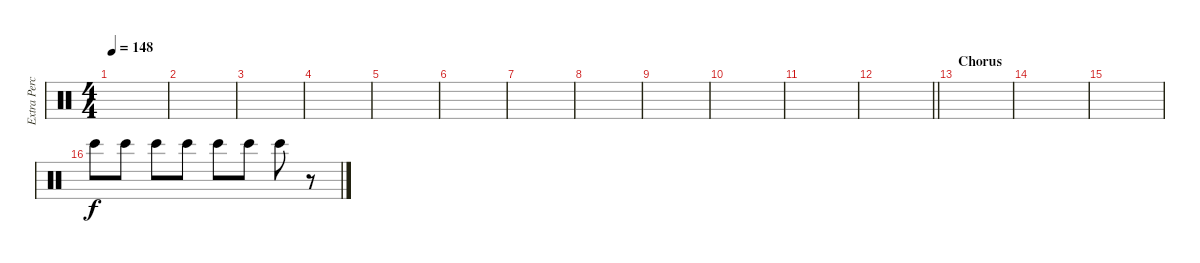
\track ("Extra Percussion" "Extra Perc") {instrument percussion}
\staff {score}
\articulation defaults
\ts (4 4)
\tempo 148
\clef neutral
\ks c
|
|
|
|
|
|
|
|
|
|
|
\barLineRight lightlight
|
\section ("" "Chorus")
|
|
|
"Bongo High (hit)".8 "Bongo High (hit)".8 "Bongo High (hit)".8 "Bongo High (hit)".8 "Bongo High (hit)".8 "Bongo High (hit)".8 "Bongo High (hit)".8 r.8
